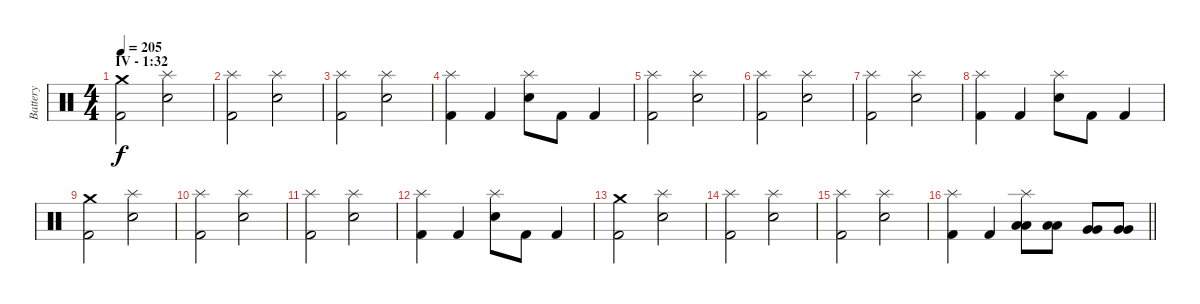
\track ("Battery" "Battery") {instrument percussion}
\staff {score}
\articulation defaults
\ts (4 4)
\section ("" "IV - 1:32")
\tempo 205
\clef neutral
\ks c
("Crash medium (hit)" "Kick (hit) 2").2{dy f} ("Splash (hit)" "Electric Snare (hit)").2 |
("Splash (hit)" "Kick (hit) 2").2 ("Splash (hit)" "Electric Snare (hit)").2 |
("Splash (hit)" "Kick (hit) 2").2 ("Splash (hit)" "Electric Snare (hit)").2 |
("Splash (hit)" "Kick (hit) 2").4 "Kick (hit) 2".4 ("Splash (hit)" "Electric Snare (hit)").8 "Kick (hit) 2".8 "Kick (hit) 2".4 |
("Splash (hit)" "Kick (hit) 2").2 ("Splash (hit)" "Electric Snare (hit)").2 |
("Splash (hit)" "Kick (hit) 2").2 ("Splash (hit)" "Electric Snare (hit)").2 |
("Splash (hit)" "Kick (hit) 2").2 ("Splash (hit)" "Electric Snare (hit)").2 |
("Splash (hit)" "Kick (hit) 2").4 "Kick (hit) 2".4 ("Splash (hit)" "Electric Snare (hit)").8 "Kick (hit) 2".8 "Kick (hit) 2".4 |
("Crash medium (hit)" "Kick (hit) 2").2 ("Splash (hit)" "Electric Snare (hit)").2 |
("Splash (hit)" "Kick (hit) 2").2 ("Splash (hit)" "Electric Snare (hit)").2 |
("Splash (hit)" "Kick (hit) 2").2 ("Splash (hit)" "Electric Snare (hit)").2 |
("Splash (hit)" "Kick (hit) 2").4 "Kick (hit) 2".4 ("Splash (hit)" "Electric Snare (hit)").8 "Kick (hit) 2".8 "Kick (hit) 2".4 |
("Crash medium (hit)" "Kick (hit) 2").2 ("Splash (hit)" "Electric Snare (hit)").2 |
("Splash (hit)" "Kick (hit) 2").2 ("Splash (hit)" "Electric Snare (hit)").2 |
("Splash (hit)" "Kick (hit) 2").2 ("Splash (hit)" "Electric Snare (hit)").2 |
\barLineRight lightlight
("Splash (hit)" "Kick (hit) 2").4 "Kick (hit) 2".4 ("Splash (hit)" "Low Tom (hit)" "Low Tom (hit)").8 ("Low Tom (hit)" "Low Tom (hit)").8 ("Very Low Tom (hit)" "Very Low Tom (hit)").8 ("Very Low Tom (hit)" "Very Low Tom (hit)").8
